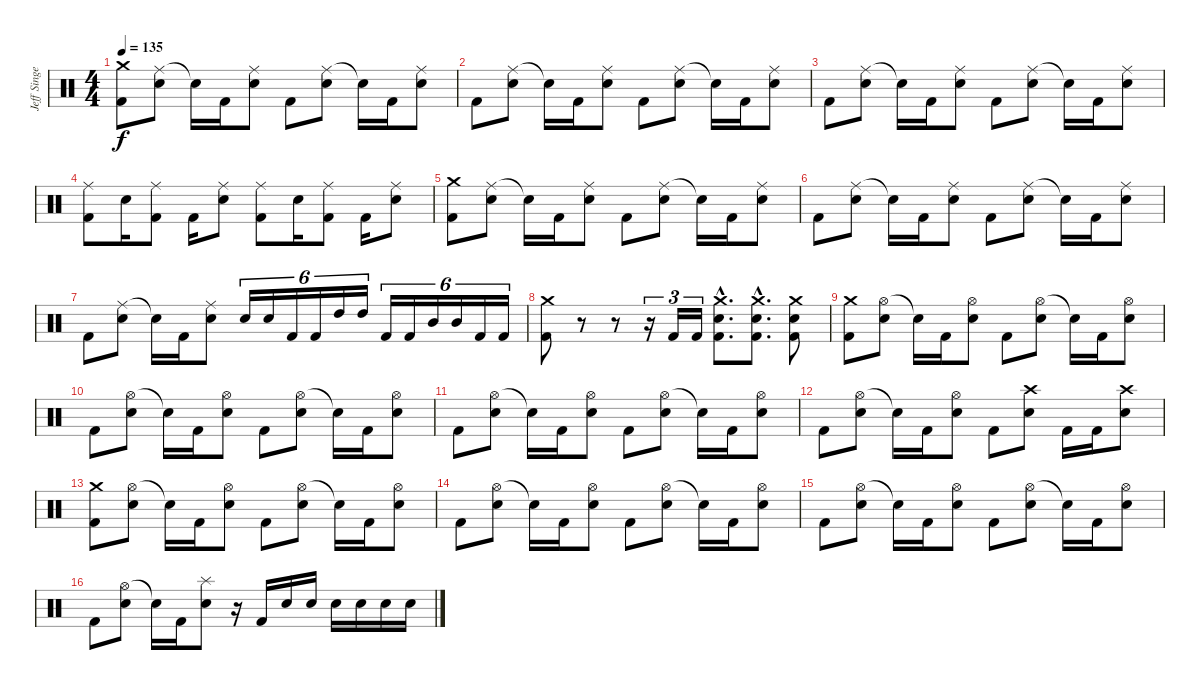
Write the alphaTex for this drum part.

\track ("Jeff Singer" "Jeff Singe") {instrument percussion}
\staff {score}
\articulation defaults
\ts (4 4)
\tempo 135
\clef neutral
\ks c
("Crash medium (hit)" "Kick (hit) 2").8{dy f} ("Ride (middle)" "Snare (hit) 2").8 "Snare (hit)"{t}.16 "Kick (hit) 2".16 ("Ride (middle)" "Snare (hit) 2").8 "Kick (hit) 2".8 ("Ride (middle)" "Snare (hit) 2").8 "Snare (hit)"{t}.16 "Kick (hit) 2".16 ("Ride (middle)" "Snare (hit) 2").8 |
"Kick (hit) 2".8 ("Ride (middle)" "Snare (hit) 2").8 "Snare (hit)"{t}.16 "Kick (hit) 2".16 ("Ride (middle)" "Snare (hit) 2").8 "Kick (hit) 2".8 ("Ride (middle)" "Snare (hit) 2").8 "Snare (hit)"{t}.16 "Kick (hit) 2".16 ("Ride (middle)" "Snare (hit) 2").8 |
"Kick (hit) 2".8 ("Ride (middle)" "Snare (hit) 2").8 "Snare (hit)"{t}.16 "Kick (hit) 2".16 ("Ride (middle)" "Snare (hit) 2").8 "Kick (hit) 2".8 ("Ride (middle)" "Snare (hit) 2").8 "Snare (hit)"{t}.16 "Kick (hit) 2".16 ("Ride (middle)" "Snare (hit) 2").8 |
("Ride (middle)" "Kick (hit) 2").8 "Snare (hit) 2".16 ("Ride (middle)" "Kick (hit) 2").8 "Kick (hit) 2".16 ("Ride (middle)" "Snare (hit) 2").8 ("Ride (middle)" "Kick (hit) 2").8 "Snare (hit) 2".16 ("Ride (middle)" "Kick (hit) 2").8 "Kick (hit) 2".16 ("Ride (middle)" "Snare (hit) 2").8 |
("Crash medium (hit)" "Kick (hit) 2").8 ("Ride (middle)" "Snare (hit) 2").8 "Snare (hit)"{t}.16 "Kick (hit) 2".16 ("Ride (middle)" "Snare (hit) 2").8 "Kick (hit) 2".8 ("Ride (middle)" "Snare (hit) 2").8 "Snare (hit)"{t}.16 "Kick (hit) 2".16 ("Ride (middle)" "Snare (hit) 2").8 |
"Kick (hit) 2".8 ("Ride (middle)" "Snare (hit) 2").8 "Snare (hit)"{t}.16 "Kick (hit) 2".16 ("Ride (middle)" "Snare (hit) 2").8 "Kick (hit) 2".8 ("Ride (middle)" "Snare (hit) 2").8 "Snare (hit)"{t}.16 "Kick (hit) 2".16 ("Ride (middle)" "Snare (hit) 2").8 |
"Kick (hit) 2".8 ("Ride (middle)" "Snare (hit) 2").8 "Snare (hit)"{t}.16 "Kick (hit) 2".16 ("Ride (middle)" "Snare (hit) 2").8 "Snare (hit) 2".16{tu (6 4)} "Snare (hit) 2".16{tu (6 4)} "Kick (hit) 2".16{tu (6 4)} "Kick (hit) 2".16{tu (6 4)} "High Tom (hit)".16{tu (6 4)} "High Tom (hit)".16{tu (6 4)} "Kick (hit) 2".16{tu (6 4)} "Kick (hit) 2".16{tu (6 4)} "Mid Tom (hit)".16{tu (6 4)} "Mid Tom (hit)".16{tu (6 4)} "Kick (hit) 2".16{tu (6 4)} "Kick (hit) 2".16{tu (6 4)} |
("Crash medium (hit)" "Kick (hit) 2").8 r.8 r.8 r.16{tu (3 2)} "Kick (hit) 2".16{tu (3 2)} "Kick (hit) 2".16{tu (3 2)} ("Crash medium (hit)"{hac} "Snare (hit) 2"{hac} "Kick (hit) 2"{hac}).8{d} ("Crash medium (hit)"{hac} "Snare (hit) 2"{hac} "Kick (hit) 2"{hac}).8{d} ("Crash medium (hit)" "Snare (hit) 2" "Kick (hit) 2").8 |
("Crash medium (hit)" "Kick (hit) 2").8 ("Hi-Hat (open)" "Snare (hit) 2").8 "Snare (hit)"{t}.16 "Kick (hit) 2".16 ("Hi-Hat (open)" "Snare (hit) 2").8 "Kick (hit) 2".8 ("Hi-Hat (open)" "Snare (hit) 2").8 "Snare (hit)"{t}.16 "Kick (hit) 2".16 ("Hi-Hat (open)" "Snare (hit) 2").8 |
"Kick (hit) 2".8 ("Hi-Hat (open)" "Snare (hit) 2").8 "Snare (hit)"{t}.16 "Kick (hit) 2".16 ("Hi-Hat (open)" "Snare (hit) 2").8 "Kick (hit) 2".8 ("Hi-Hat (open)" "Snare (hit) 2").8 "Snare (hit)"{t}.16 "Kick (hit) 2".16 ("Hi-Hat (open)" "Snare (hit) 2").8 |
"Kick (hit) 2".8 ("Hi-Hat (open)" "Snare (hit) 2").8 "Snare (hit)"{t}.16 "Kick (hit) 2".16 ("Hi-Hat (open)" "Snare (hit) 2").8 "Kick (hit) 2".8 ("Hi-Hat (open)" "Snare (hit) 2").8 "Snare (hit)"{t}.16 "Kick (hit) 2".16 ("Hi-Hat (open)" "Snare (hit) 2").8 |
"Kick (hit) 2".8 ("Hi-Hat (open)" "Snare (hit) 2").8 "Snare (hit)"{t}.16 "Kick (hit) 2".16 ("Hi-Hat (open)" "Snare (hit) 2").8 "Kick (hit) 2".8 ("Crash high (hit)" "Snare (hit) 2").8 "Kick (hit) 2".16 "Kick (hit) 2".16 ("Crash high (hit)" "Snare (hit) 2").8 |
("Crash medium (hit)" "Kick (hit) 2").8 ("Hi-Hat (open)" "Snare (hit) 2").8 "Snare (hit)"{t}.16 "Kick (hit) 2".16 ("Hi-Hat (open)" "Snare (hit) 2").8 "Kick (hit) 2".8 ("Hi-Hat (open)" "Snare (hit) 2").8 "Snare (hit)"{t}.16 "Kick (hit) 2".16 ("Hi-Hat (open)" "Snare (hit) 2").8 |
"Kick (hit) 2".8 ("Hi-Hat (open)" "Snare (hit) 2").8 "Snare (hit)"{t}.16 "Kick (hit) 2".16 ("Hi-Hat (open)" "Snare (hit) 2").8 "Kick (hit) 2".8 ("Hi-Hat (open)" "Snare (hit) 2").8 "Snare (hit)"{t}.16 "Kick (hit) 2".16 ("Hi-Hat (open)" "Snare (hit) 2").8 |
"Kick (hit) 2".8 ("Hi-Hat (open)" "Snare (hit) 2").8 "Snare (hit)"{t}.16 "Kick (hit) 2".16 ("Hi-Hat (open)" "Snare (hit) 2").8 "Kick (hit) 2".8 ("Hi-Hat (open)" "Snare (hit) 2").8 "Snare (hit)"{t}.16 "Kick (hit) 2".16 ("Hi-Hat (open)" "Snare (hit) 2").8 |
"Kick (hit) 2".8 ("Hi-Hat (open)" "Snare (hit) 2").8 "Snare (hit)"{t}.16 "Kick (hit) 2".16 ("Splash (hit)" "Snare (hit) 2").8 r.16 "Kick (hit) 2".16 "Snare (hit) 2".16 "Snare (hit) 2".16 "Snare (hit) 2".16 "Snare (hit) 2".16 "Snare (hit) 2".16 "Snare (hit) 2".16
